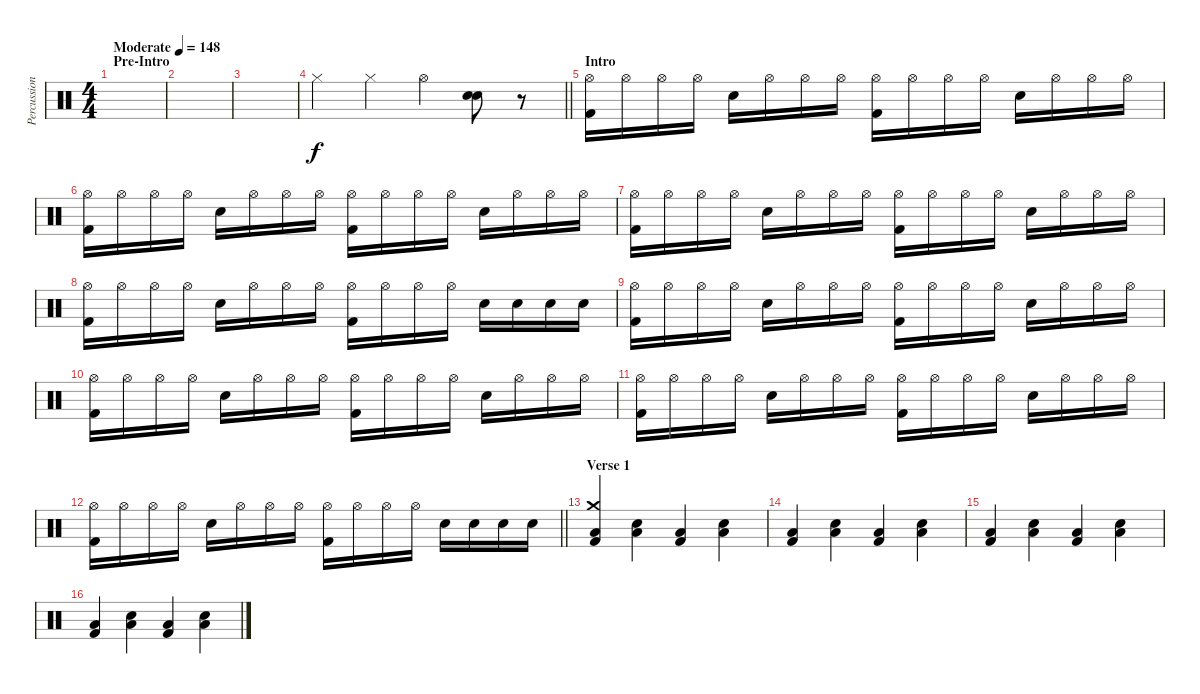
\track ("Percussion" "Percussion") {instrument percussion}
\staff {score}
\articulation defaults
\ts (4 4)
\section ("" "Pre-Intro")
\tempo (148 "Moderate")
\clef neutral
\ks c
|
|
|
\barLineRight lightlight "Hi-Hat (closed)".4 "Hi-Hat (closed)".4 "Hi-Hat (open)".4
("Snare (hit) 2" "Snare (hit) 2").8 r.8 |
\section ("" "Intro")
("Hi-Hat (open)" "Kick (hit) 2").16 "Hi-Hat (open)".16 "Hi-Hat (open)".16 "Hi-Hat (open)".16 "Snare (hit) 2".16 "Hi-Hat (open)".16 "Hi-Hat (open)".16 "Hi-Hat (open)".16 ("Hi-Hat (open)" "Kick (hit) 2").16 "Hi-Hat (open)".16 "Hi-Hat (open)".16 "Hi-Hat (open)".16 "Snare (hit) 2".16 "Hi-Hat (open)".16 "Hi-Hat (open)".16 "Hi-Hat (open)".16 |
("Hi-Hat (open)" "Kick (hit) 2").16 "Hi-Hat (open)".16 "Hi-Hat (open)".16 "Hi-Hat (open)".16 "Snare (hit) 2".16 "Hi-Hat (open)".16 "Hi-Hat (open)".16 "Hi-Hat (open)".16 ("Hi-Hat (open)" "Kick (hit) 2").16 "Hi-Hat (open)".16 "Hi-Hat (open)".16 "Hi-Hat (open)".16 "Snare (hit) 2".16 "Hi-Hat (open)".16 "Hi-Hat (open)".16 "Hi-Hat (open)".16 |
("Hi-Hat (open)" "Kick (hit) 2").16 "Hi-Hat (open)".16 "Hi-Hat (open)".16 "Hi-Hat (open)".16 "Snare (hit) 2".16 "Hi-Hat (open)".16 "Hi-Hat (open)".16 "Hi-Hat (open)".16 ("Hi-Hat (open)" "Kick (hit) 2").16 "Hi-Hat (open)".16 "Hi-Hat (open)".16 "Hi-Hat (open)".16 "Snare (hit) 2".16 "Hi-Hat (open)".16 "Hi-Hat (open)".16 "Hi-Hat (open)".16 |
("Hi-Hat (open)" "Kick (hit) 2").16 "Hi-Hat (open)".16 "Hi-Hat (open)".16 "Hi-Hat (open)".16 "Snare (hit) 2".16 "Hi-Hat (open)".16 "Hi-Hat (open)".16 "Hi-Hat (open)".16 ("Hi-Hat (open)" "Kick (hit) 2").16 "Hi-Hat (open)".16 "Hi-Hat (open)".16 "Hi-Hat (open)".16 "Snare (hit) 2".16 "Snare (hit) 2".16 "Snare (hit) 2".16 "Snare (hit) 2".16 |
("Hi-Hat (open)" "Kick (hit) 2").16 "Hi-Hat (open)".16 "Hi-Hat (open)".16 "Hi-Hat (open)".16 "Snare (hit) 2".16 "Hi-Hat (open)".16 "Hi-Hat (open)".16 "Hi-Hat (open)".16 ("Hi-Hat (open)" "Kick (hit) 2").16 "Hi-Hat (open)".16 "Hi-Hat (open)".16 "Hi-Hat (open)".16 "Snare (hit) 2".16 "Hi-Hat (open)".16 "Hi-Hat (open)".16 "Hi-Hat (open)".16 |
("Hi-Hat (open)" "Kick (hit) 2").16 "Hi-Hat (open)".16 "Hi-Hat (open)".16 "Hi-Hat (open)".16 "Snare (hit) 2".16 "Hi-Hat (open)".16 "Hi-Hat (open)".16 "Hi-Hat (open)".16 ("Hi-Hat (open)" "Kick (hit) 2").16 "Hi-Hat (open)".16 "Hi-Hat (open)".16 "Hi-Hat (open)".16 "Snare (hit) 2".16 "Hi-Hat (open)".16 "Hi-Hat (open)".16 "Hi-Hat (open)".16 |
("Hi-Hat (open)" "Kick (hit) 2").16 "Hi-Hat (open)".16 "Hi-Hat (open)".16 "Hi-Hat (open)".16 "Snare (hit) 2".16 "Hi-Hat (open)".16 "Hi-Hat (open)".16 "Hi-Hat (open)".16 ("Hi-Hat (open)" "Kick (hit) 2").16 "Hi-Hat (open)".16 "Hi-Hat (open)".16 "Hi-Hat (open)".16 "Snare (hit) 2".16 "Hi-Hat (open)".16 "Hi-Hat (open)".16 "Hi-Hat (open)".16 |
\barLineRight lightlight
("Hi-Hat (open)" "Kick (hit) 2").16 "Hi-Hat (open)".16 "Hi-Hat (open)".16 "Hi-Hat (open)".16 "Snare (hit) 2".16 "Hi-Hat (open)".16 "Hi-Hat (open)".16 "Hi-Hat (open)".16 ("Hi-Hat (open)" "Kick (hit) 2").16 "Hi-Hat (open)".16 "Hi-Hat (open)".16 "Hi-Hat (open)".16 "Snare (hit) 2".16 "Snare (hit) 2".16 "Snare (hit) 2".16 "Snare (hit) 2".16 |
\section ("" "Verse 1")
("Crash medium (hit)" "Low Floor Tom (hit)" "Kick (hit) 2").4 ("Low Floor Tom (hit)" "Snare (hit) 2").4 ("Low Floor Tom (hit)" "Kick (hit) 2").4 ("Low Floor Tom (hit)" "Snare (hit) 2").4 |
("Low Floor Tom (hit)" "Kick (hit) 2").4 ("Low Floor Tom (hit)" "Snare (hit) 2").4 ("Low Floor Tom (hit)" "Kick (hit) 2").4 ("Low Floor Tom (hit)" "Snare (hit) 2").4 |
("Low Floor Tom (hit)" "Kick (hit) 2").4 ("Low Floor Tom (hit)" "Snare (hit) 2").4 ("Low Floor Tom (hit)" "Kick (hit) 2").4 ("Low Floor Tom (hit)" "Snare (hit) 2").4 |
("Low Floor Tom (hit)" "Kick (hit) 2").4 ("Low Floor Tom (hit)" "Snare (hit) 2").4 ("Low Floor Tom (hit)" "Kick (hit) 2").4 ("Low Floor Tom (hit)" "Snare (hit) 2").4
